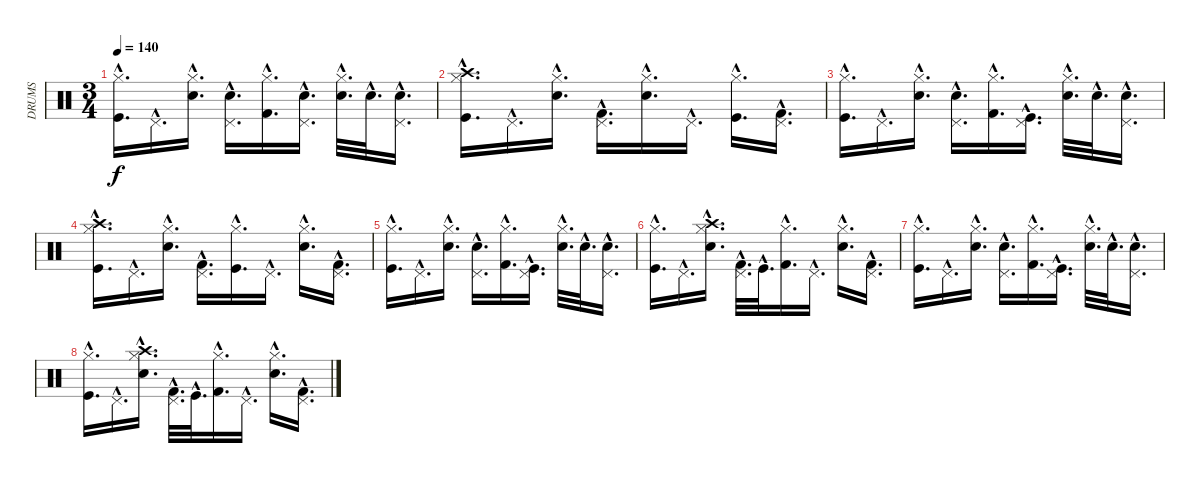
\track ("DRUMS" "DRUMS") {instrument percussion}
\staff {score}
\articulation defaults
\ts (3 4)
\tempo 140
\clef neutral
\ks c
("Hi-Hat (closed)"{hac} "Kick (hit)"{hac}).16{d dy f} "Pedal Hi-Hat (hit)"{hac}.16{d} ("Hi-Hat (closed)"{hac} "Electric Snare (hit)"{hac}).16{d} ("Pedal Hi-Hat (hit)"{hac} "Electric Snare (hit)"{hac}).16{d} ("Hi-Hat (closed)"{hac} "Kick (hit) 2"{hac}).16{d} ("Pedal Hi-Hat (hit)"{hac} "Electric Snare (hit)"{hac}).16{d} ("Hi-Hat (closed)"{hac} "Electric Snare (hit)"{hac}).32{d} "Electric Snare (hit)"{hac}.32{d} ("Pedal Hi-Hat (hit)"{hac} "Electric Snare (hit)"{hac}).16{d} |
("Hi-Hat (closed)"{hac} "Crash high (hit)"{hac} "Kick (hit)"{hac}).16{d} "Pedal Hi-Hat (hit)"{hac}.16{d} ("Hi-Hat (closed)"{hac} "Electric Snare (hit)"{hac}).16{d} ("Pedal Hi-Hat (hit)"{hac} "Kick (hit) 2"{hac}).16{d} ("Hi-Hat (closed)"{hac} "Electric Snare (hit)"{hac}).16{d} "Pedal Hi-Hat (hit)"{hac}.16{d} ("Hi-Hat (closed)"{hac} "Kick (hit)"{hac}).16{d} ("Pedal Hi-Hat (hit)"{hac} "Kick (hit) 2"{hac}).16{d} |
("Hi-Hat (closed)"{hac} "Kick (hit)"{hac}).16{d} "Pedal Hi-Hat (hit)"{hac}.16{d} ("Hi-Hat (closed)"{hac} "Electric Snare (hit)"{hac}).16{d} ("Pedal Hi-Hat (hit)"{hac} "Electric Snare (hit)"{hac}).16{d} ("Hi-Hat (closed)"{hac} "Kick (hit) 2"{hac}).16{d} ("Pedal Hi-Hat (hit)"{hac} "Kick (hit)"{hac}).16{d} ("Hi-Hat (closed)"{hac} "Electric Snare (hit)"{hac}).32{d} "Electric Snare (hit)"{hac}.32{d} ("Pedal Hi-Hat (hit)"{hac} "Electric Snare (hit)"{hac}).16{d} |
("Hi-Hat (closed)"{hac} "Crash high (hit)"{hac} "Kick (hit)"{hac}).16{d} "Pedal Hi-Hat (hit)"{hac}.16{d} ("Hi-Hat (closed)"{hac} "Electric Snare (hit)"{hac}).16{d} ("Pedal Hi-Hat (hit)"{hac} "Kick (hit) 2"{hac}).16{d} ("Hi-Hat (closed)"{hac} "Kick (hit)"{hac}).16{d} "Pedal Hi-Hat (hit)"{hac}.16{d} ("Hi-Hat (closed)"{hac} "Electric Snare (hit)"{hac}).16{d} ("Pedal Hi-Hat (hit)"{hac} "Kick (hit) 2"{hac}).16{d} |
("Hi-Hat (closed)"{hac} "Kick (hit)"{hac}).16{d} "Pedal Hi-Hat (hit)"{hac}.16{d} ("Hi-Hat (closed)"{hac} "Electric Snare (hit)"{hac}).16{d} ("Pedal Hi-Hat (hit)"{hac} "Electric Snare (hit)"{hac}).16{d} ("Hi-Hat (closed)"{hac} "Kick (hit) 2"{hac}).16{d} ("Pedal Hi-Hat (hit)"{hac} "Kick (hit)"{hac}).16{d} ("Hi-Hat (closed)"{hac} "Electric Snare (hit)"{hac}).32{d} "Electric Snare (hit)"{hac}.32{d} ("Pedal Hi-Hat (hit)"{hac} "Electric Snare (hit)"{hac}).16{d} |
("Hi-Hat (closed)"{hac} "Kick (hit)"{hac}).16{d} "Pedal Hi-Hat (hit)"{hac}.16{d} ("Hi-Hat (closed)"{hac} "Crash high (hit)"{hac} "Electric Snare (hit)"{hac}).16{d} ("Pedal Hi-Hat (hit)"{hac} "Kick (hit) 2"{hac}).32{d} "Kick (hit)"{hac}.32{d} ("Hi-Hat (closed)"{hac} "Kick (hit) 2"{hac}).16{d} "Pedal Hi-Hat (hit)"{hac}.16{d} ("Hi-Hat (closed)"{hac} "Electric Snare (hit)"{hac}).16{d} ("Pedal Hi-Hat (hit)"{hac} "Kick (hit) 2"{hac}).16{d} |
("Hi-Hat (closed)"{hac} "Kick (hit)"{hac}).16{d} "Pedal Hi-Hat (hit)"{hac}.16{d} ("Hi-Hat (closed)"{hac} "Electric Snare (hit)"{hac}).16{d} ("Pedal Hi-Hat (hit)"{hac} "Electric Snare (hit)"{hac}).16{d} ("Hi-Hat (closed)"{hac} "Kick (hit) 2"{hac}).16{d} ("Pedal Hi-Hat (hit)"{hac} "Kick (hit)"{hac}).16{d} ("Hi-Hat (closed)"{hac} "Electric Snare (hit)"{hac}).32{d} "Electric Snare (hit)"{hac}.32{d} ("Pedal Hi-Hat (hit)"{hac} "Electric Snare (hit)"{hac}).16{d} |
("Hi-Hat (closed)"{hac} "Kick (hit)"{hac}).16{d} "Pedal Hi-Hat (hit)"{hac}.16{d} ("Hi-Hat (closed)"{hac} "Crash high (hit)"{hac} "Electric Snare (hit)"{hac}).16{d} ("Pedal Hi-Hat (hit)"{hac} "Kick (hit) 2"{hac}).32{d} "Kick (hit)"{hac}.32{d} ("Hi-Hat (closed)"{hac} "Kick (hit) 2"{hac}).16{d} "Pedal Hi-Hat (hit)"{hac}.16{d} ("Hi-Hat (closed)"{hac} "Electric Snare (hit)"{hac}).16{d} ("Pedal Hi-Hat (hit)"{hac} "Kick (hit) 2"{hac}).16{d}
